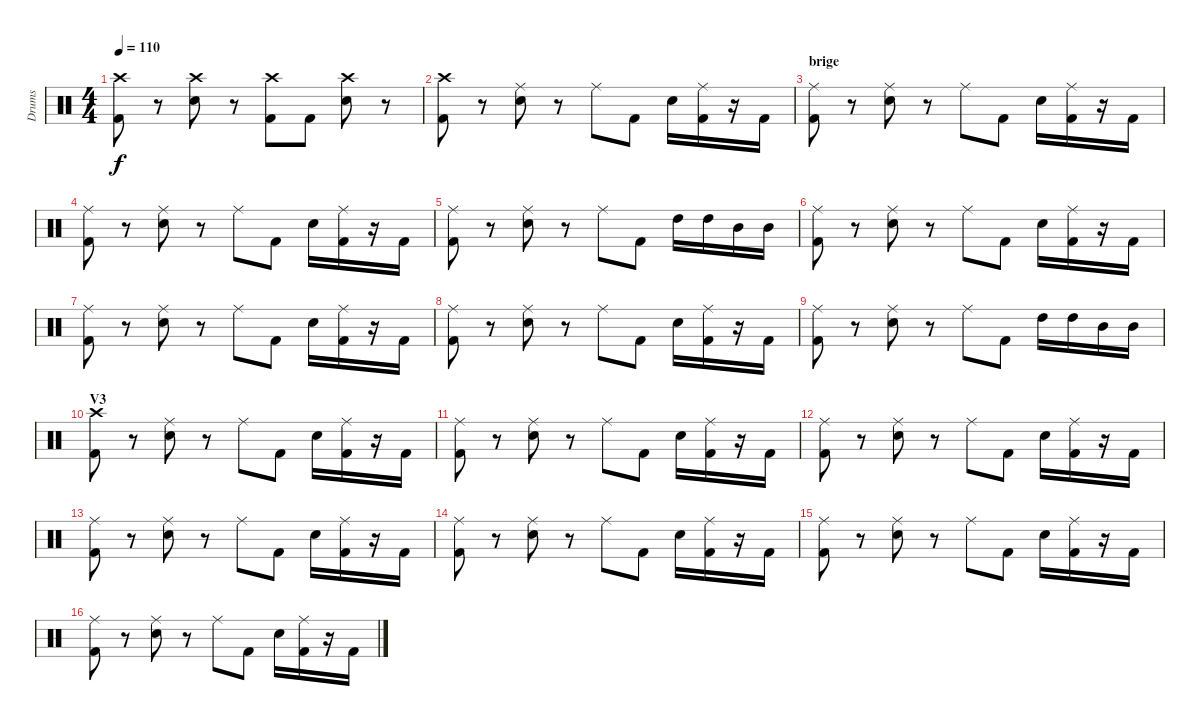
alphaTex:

\track ("Drums" "Drums") {instrument percussion}
\staff {score}
\articulation defaults
\ts (4 4)
\tempo 110
\clef neutral
\ks c
("Crash high (hit)" "Kick (hit) 2").8{dy f} r.8 ("Crash high (hit)" "Snare (hit) 2").8 r.8 ("Crash high (hit)" "Kick (hit) 2").8 "Kick (hit) 2".8 ("Crash high (hit)" "Snare (hit) 2").8 r.8 |
("Crash high (hit)" "Kick (hit) 2").8 r.8 ("Ride (middle)" "Snare (hit) 2").8 r.8 "Ride (middle)".8 "Kick (hit) 2".8 "Snare (hit) 2".16 ("Ride (middle)" "Kick (hit) 2").16 r.16 "Kick (hit) 2".16 |
\section ("" "brige")
("Ride (middle)" "Kick (hit) 2").8 r.8 ("Ride (middle)" "Snare (hit) 2").8 r.8 "Ride (middle)".8 "Kick (hit) 2".8 "Snare (hit) 2".16 ("Ride (middle)" "Kick (hit) 2").16 r.16 "Kick (hit) 2".16 |
("Ride (middle)" "Kick (hit) 2").8 r.8 ("Ride (middle)" "Snare (hit) 2").8 r.8 "Ride (middle)".8 "Kick (hit) 2".8 "Snare (hit) 2".16 ("Ride (middle)" "Kick (hit) 2").16 r.16 "Kick (hit) 2".16 |
("Ride (middle)" "Kick (hit) 2").8 r.8 ("Ride (middle)" "Snare (hit) 2").8 r.8 "Ride (middle)".8 "Kick (hit) 2".8 "High Tom (hit)".16 "High Tom (hit)".16 "Mid Tom (hit)".16 "Mid Tom (hit)".16 |
("Ride (middle)" "Kick (hit) 2").8 r.8 ("Ride (middle)" "Snare (hit) 2").8 r.8 "Ride (middle)".8 "Kick (hit) 2".8 "Snare (hit) 2".16 ("Ride (middle)" "Kick (hit) 2").16 r.16 "Kick (hit) 2".16 |
("Ride (middle)" "Kick (hit) 2").8 r.8 ("Ride (middle)" "Snare (hit) 2").8 r.8 "Ride (middle)".8 "Kick (hit) 2".8 "Snare (hit) 2".16 ("Ride (middle)" "Kick (hit) 2").16 r.16 "Kick (hit) 2".16 |
("Ride (middle)" "Kick (hit) 2").8 r.8 ("Ride (middle)" "Snare (hit) 2").8 r.8 "Ride (middle)".8 "Kick (hit) 2".8 "Snare (hit) 2".16 ("Ride (middle)" "Kick (hit) 2").16 r.16 "Kick (hit) 2".16 |
("Ride (middle)" "Kick (hit) 2").8 r.8 ("Ride (middle)" "Snare (hit) 2").8 r.8 "Ride (middle)".8 "Kick (hit) 2".8 "High Tom (hit)".16 "High Tom (hit)".16 "Mid Tom (hit)".16 "Mid Tom (hit)".16 |
\section ("" "V3")
("Crash high (hit)" "Kick (hit) 2").8 r.8 ("Ride (middle)" "Snare (hit) 2").8 r.8 "Ride (middle)".8 "Kick (hit) 2".8 "Snare (hit) 2".16 ("Ride (middle)" "Kick (hit) 2").16 r.16 "Kick (hit) 2".16 |
("Ride (middle)" "Kick (hit) 2").8 r.8 ("Ride (middle)" "Snare (hit) 2").8 r.8 "Ride (middle)".8 "Kick (hit) 2".8 "Snare (hit) 2".16 ("Ride (middle)" "Kick (hit) 2").16 r.16 "Kick (hit) 2".16 |
("Ride (middle)" "Kick (hit) 2").8 r.8 ("Ride (middle)" "Snare (hit) 2").8 r.8 "Ride (middle)".8 "Kick (hit) 2".8 "Snare (hit) 2".16 ("Ride (middle)" "Kick (hit) 2").16 r.16 "Kick (hit) 2".16 |
("Ride (middle)" "Kick (hit) 2").8 r.8 ("Ride (middle)" "Snare (hit) 2").8 r.8 "Ride (middle)".8 "Kick (hit) 2".8 "Snare (hit) 2".16 ("Ride (middle)" "Kick (hit) 2").16 r.16 "Kick (hit) 2".16 |
("Ride (middle)" "Kick (hit) 2").8 r.8 ("Ride (middle)" "Snare (hit) 2").8 r.8 "Ride (middle)".8 "Kick (hit) 2".8 "Snare (hit) 2".16 ("Ride (middle)" "Kick (hit) 2").16 r.16 "Kick (hit) 2".16 |
("Ride (middle)" "Kick (hit) 2").8 r.8 ("Ride (middle)" "Snare (hit) 2").8 r.8 "Ride (middle)".8 "Kick (hit) 2".8 "Snare (hit) 2".16 ("Ride (middle)" "Kick (hit) 2").16 r.16 "Kick (hit) 2".16 |
("Ride (middle)" "Kick (hit) 2").8 r.8 ("Ride (middle)" "Snare (hit) 2").8 r.8 "Ride (middle)".8 "Kick (hit) 2".8 "Snare (hit) 2".16 ("Ride (middle)" "Kick (hit) 2").16 r.16 "Kick (hit) 2".16
